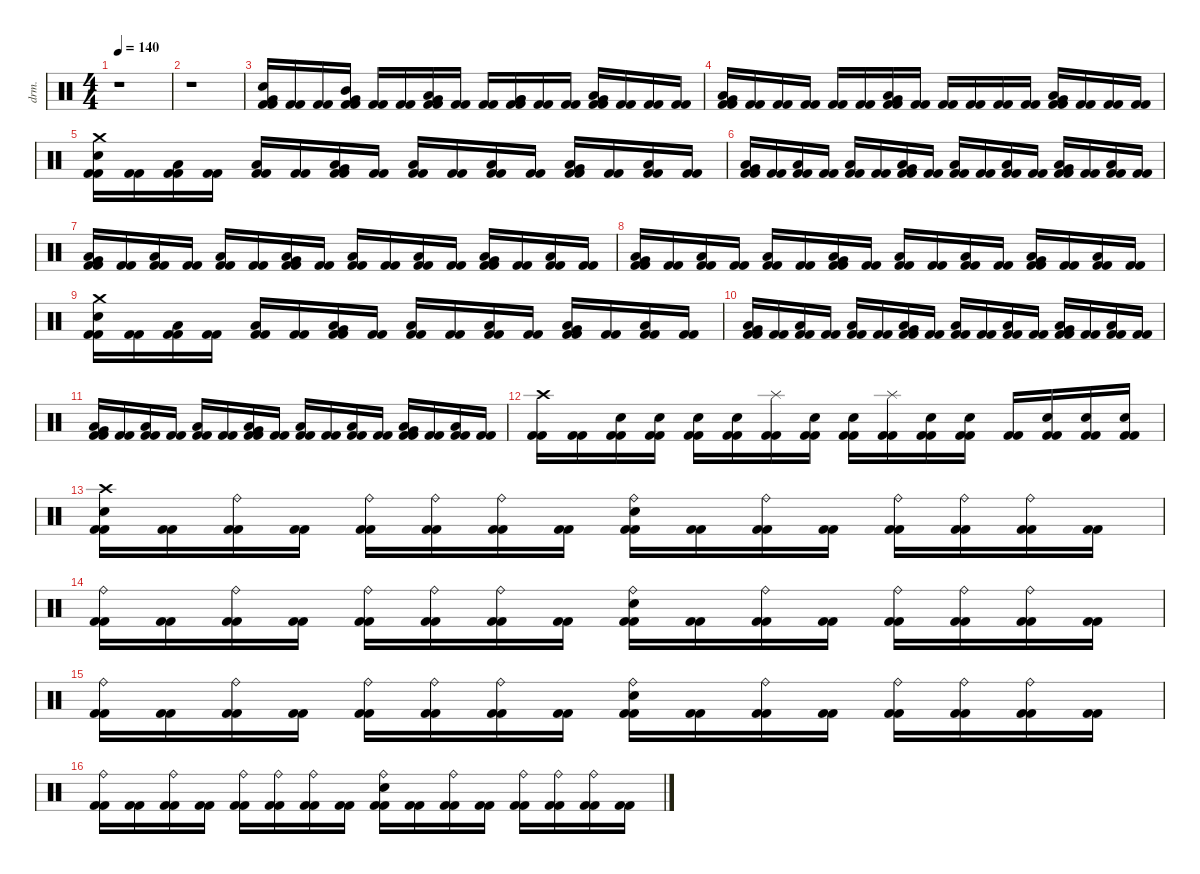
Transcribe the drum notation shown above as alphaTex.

\defaultSystemsLayout 4
\hideDynamics
\bracketExtendMode nobrackets
\otherSystemsTrackNameOrientation horizontal
\track ("Chris Adler" "drm.") {instrument percussion}
\staff {score}
\articulation defaults
\ts (4 4)
\tempo 140
\clef neutral
\ks c
r.1{dy f} |
r.1 |
("Very Low Tom (hit)" "Snare (hit) 2" "Kick (hit) 2" "Kick (hit) 2").16 ("Kick (hit) 2" "Kick (hit) 2").16 ("Kick (hit) 2" "Kick (hit) 2").16 ("Mid Tom (hit)" "Very Low Tom (hit)" "Kick (hit) 2" "Kick (hit) 2").16 ("Kick (hit) 2" "Kick (hit) 2").16 ("Kick (hit) 2" "Kick (hit) 2").16 ("Low Tom (hit)" "Very Low Tom (hit)" "Kick (hit) 2" "Kick (hit) 2").16 ("Kick (hit) 2" "Kick (hit) 2").16 ("Kick (hit) 2" "Kick (hit) 2").16 ("Very Low Tom (hit)" "Very Low Tom (hit)" "Kick (hit) 2" "Kick (hit) 2").16 ("Kick (hit) 2" "Kick (hit) 2").16 ("Kick (hit) 2" "Kick (hit) 2").16 ("Very Low Tom (hit)" "Low Floor Tom (hit)" "Kick (hit) 2" "Kick (hit) 2").16 ("Kick (hit) 2" "Kick (hit) 2").16 ("Kick (hit) 2" "Kick (hit) 2").16 ("Kick (hit) 2" "Kick (hit) 2").16 |
("Very Low Tom (hit)" "Low Floor Tom (hit)" "Kick (hit) 2" "Kick (hit) 2").16 ("Kick (hit) 2" "Kick (hit) 2").16 ("Kick (hit) 2" "Kick (hit) 2").16 ("Kick (hit) 2" "Kick (hit) 2").16 ("Kick (hit) 2" "Kick (hit) 2").16 ("Kick (hit) 2" "Kick (hit) 2").16 ("Very Low Tom (hit)" "Low Floor Tom (hit)" "Kick (hit) 2" "Kick (hit) 2").16 ("Kick (hit) 2" "Kick (hit) 2").16 ("Kick (hit) 2" "Kick (hit) 2").16 ("Kick (hit) 2" "Kick (hit) 2").16 ("Kick (hit) 2" "Kick (hit) 2").16 ("Kick (hit) 2" "Kick (hit) 2").16 ("Very Low Tom (hit)" "Low Floor Tom (hit)" "Kick (hit) 2" "Kick (hit) 2").16 ("Kick (hit) 2" "Kick (hit) 2").16 ("Kick (hit) 2" "Kick (hit) 2").16 ("Kick (hit) 2" "Kick (hit) 2").16 |
("Crash medium (hit)" "Snare (hit) 2" "Kick (hit) 2" "Kick (hit) 2").16 ("Kick (hit) 2" "Kick (hit) 2").16 ("Low Floor Tom (hit)" "Kick (hit) 2" "Kick (hit) 2").16 ("Kick (hit) 2" "Kick (hit) 2").16 ("Low Floor Tom (hit)" "Kick (hit) 2" "Kick (hit) 2").16 ("Kick (hit) 2" "Kick (hit) 2").16 ("Very Low Tom (hit)" "Low Floor Tom (hit)" "Kick (hit) 2" "Kick (hit) 2").16 ("Kick (hit) 2" "Kick (hit) 2").16 ("Low Floor Tom (hit)" "Kick (hit) 2" "Kick (hit) 2").16 ("Kick (hit) 2" "Kick (hit) 2").16 ("Low Floor Tom (hit)" "Kick (hit) 2" "Kick (hit) 2").16 ("Kick (hit) 2" "Kick (hit) 2").16 ("Very Low Tom (hit)" "Low Floor Tom (hit)" "Kick (hit) 2" "Kick (hit) 2").16 ("Kick (hit) 2" "Kick (hit) 2").16 ("Low Floor Tom (hit)" "Kick (hit) 2" "Kick (hit) 2").16 ("Kick (hit) 2" "Kick (hit) 2").16 |
("Very Low Tom (hit)" "Low Floor Tom (hit)" "Kick (hit) 2" "Kick (hit) 2").16 ("Kick (hit) 2" "Kick (hit) 2").16 ("Low Floor Tom (hit)" "Kick (hit) 2" "Kick (hit) 2").16 ("Kick (hit) 2" "Kick (hit) 2").16 ("Low Floor Tom (hit)" "Kick (hit) 2" "Kick (hit) 2").16 ("Kick (hit) 2" "Kick (hit) 2").16 ("Very Low Tom (hit)" "Low Floor Tom (hit)" "Kick (hit) 2" "Kick (hit) 2").16 ("Kick (hit) 2" "Kick (hit) 2").16 ("Low Floor Tom (hit)" "Kick (hit) 2" "Kick (hit) 2").16 ("Kick (hit) 2" "Kick (hit) 2").16 ("Low Floor Tom (hit)" "Kick (hit) 2" "Kick (hit) 2").16 ("Kick (hit) 2" "Kick (hit) 2").16 ("Very Low Tom (hit)" "Low Floor Tom (hit)" "Kick (hit) 2" "Kick (hit) 2").16 ("Kick (hit) 2" "Kick (hit) 2").16 ("Low Floor Tom (hit)" "Kick (hit) 2" "Kick (hit) 2").16 ("Kick (hit) 2" "Kick (hit) 2").16 |
("Very Low Tom (hit)" "Low Floor Tom (hit)" "Kick (hit) 2" "Kick (hit) 2").16 ("Kick (hit) 2" "Kick (hit) 2").16 ("Low Floor Tom (hit)" "Kick (hit) 2" "Kick (hit) 2").16 ("Kick (hit) 2" "Kick (hit) 2").16 ("Low Floor Tom (hit)" "Kick (hit) 2" "Kick (hit) 2").16 ("Kick (hit) 2" "Kick (hit) 2").16 ("Very Low Tom (hit)" "Low Floor Tom (hit)" "Kick (hit) 2" "Kick (hit) 2").16 ("Kick (hit) 2" "Kick (hit) 2").16 ("Low Floor Tom (hit)" "Kick (hit) 2" "Kick (hit) 2").16 ("Kick (hit) 2" "Kick (hit) 2").16 ("Low Floor Tom (hit)" "Kick (hit) 2" "Kick (hit) 2").16 ("Kick (hit) 2" "Kick (hit) 2").16 ("Very Low Tom (hit)" "Low Floor Tom (hit)" "Kick (hit) 2" "Kick (hit) 2").16 ("Kick (hit) 2" "Kick (hit) 2").16 ("Low Floor Tom (hit)" "Kick (hit) 2" "Kick (hit) 2").16 ("Kick (hit) 2" "Kick (hit) 2").16 |
("Very Low Tom (hit)" "Low Floor Tom (hit)" "Kick (hit) 2" "Kick (hit) 2").16 ("Kick (hit) 2" "Kick (hit) 2").16 ("Low Floor Tom (hit)" "Kick (hit) 2" "Kick (hit) 2").16 ("Kick (hit) 2" "Kick (hit) 2").16 ("Low Floor Tom (hit)" "Kick (hit) 2" "Kick (hit) 2").16 ("Kick (hit) 2" "Kick (hit) 2").16 ("Very Low Tom (hit)" "Low Floor Tom (hit)" "Kick (hit) 2" "Kick (hit) 2").16 ("Kick (hit) 2" "Kick (hit) 2").16 ("Low Floor Tom (hit)" "Kick (hit) 2" "Kick (hit) 2").16 ("Kick (hit) 2" "Kick (hit) 2").16 ("Low Floor Tom (hit)" "Kick (hit) 2" "Kick (hit) 2").16 ("Kick (hit) 2" "Kick (hit) 2").16 ("Very Low Tom (hit)" "Low Floor Tom (hit)" "Kick (hit) 2" "Kick (hit) 2").16 ("Kick (hit) 2" "Kick (hit) 2").16 ("Low Floor Tom (hit)" "Kick (hit) 2" "Kick (hit) 2").16 ("Kick (hit) 2" "Kick (hit) 2").16 |
("Crash medium (hit)" "Snare (hit) 2" "Kick (hit) 2" "Kick (hit) 2").16 ("Kick (hit) 2" "Kick (hit) 2").16 ("Low Floor Tom (hit)" "Kick (hit) 2" "Kick (hit) 2").16 ("Kick (hit) 2" "Kick (hit) 2").16 ("Low Floor Tom (hit)" "Kick (hit) 2" "Kick (hit) 2").16 ("Kick (hit) 2" "Kick (hit) 2").16 ("Very Low Tom (hit)" "Low Floor Tom (hit)" "Kick (hit) 2" "Kick (hit) 2").16 ("Kick (hit) 2" "Kick (hit) 2").16 ("Low Floor Tom (hit)" "Kick (hit) 2" "Kick (hit) 2").16 ("Kick (hit) 2" "Kick (hit) 2").16 ("Low Floor Tom (hit)" "Kick (hit) 2" "Kick (hit) 2").16 ("Kick (hit) 2" "Kick (hit) 2").16 ("Very Low Tom (hit)" "Low Floor Tom (hit)" "Kick (hit) 2" "Kick (hit) 2").16 ("Kick (hit) 2" "Kick (hit) 2").16 ("Low Floor Tom (hit)" "Kick (hit) 2" "Kick (hit) 2").16 ("Kick (hit) 2" "Kick (hit) 2").16 |
("Very Low Tom (hit)" "Low Floor Tom (hit)" "Kick (hit) 2" "Kick (hit) 2").16 ("Kick (hit) 2" "Kick (hit) 2").16 ("Low Floor Tom (hit)" "Kick (hit) 2" "Kick (hit) 2").16 ("Kick (hit) 2" "Kick (hit) 2").16 ("Low Floor Tom (hit)" "Kick (hit) 2" "Kick (hit) 2").16 ("Kick (hit) 2" "Kick (hit) 2").16 ("Very Low Tom (hit)" "Low Floor Tom (hit)" "Kick (hit) 2" "Kick (hit) 2").16 ("Kick (hit) 2" "Kick (hit) 2").16 ("Low Floor Tom (hit)" "Kick (hit) 2" "Kick (hit) 2").16 ("Kick (hit) 2" "Kick (hit) 2").16 ("Low Floor Tom (hit)" "Kick (hit) 2" "Kick (hit) 2").16 ("Kick (hit) 2" "Kick (hit) 2").16 ("Very Low Tom (hit)" "Low Floor Tom (hit)" "Kick (hit) 2" "Kick (hit) 2").16 ("Kick (hit) 2" "Kick (hit) 2").16 ("Low Floor Tom (hit)" "Kick (hit) 2" "Kick (hit) 2").16 ("Kick (hit) 2" "Kick (hit) 2").16 |
("Very Low Tom (hit)" "Low Floor Tom (hit)" "Kick (hit) 2" "Kick (hit) 2").16 ("Kick (hit) 2" "Kick (hit) 2").16 ("Low Floor Tom (hit)" "Kick (hit) 2" "Kick (hit) 2").16 ("Kick (hit) 2" "Kick (hit) 2").16 ("Low Floor Tom (hit)" "Kick (hit) 2" "Kick (hit) 2").16 ("Kick (hit) 2" "Kick (hit) 2").16 ("Very Low Tom (hit)" "Low Floor Tom (hit)" "Kick (hit) 2" "Kick (hit) 2").16 ("Kick (hit) 2" "Kick (hit) 2").16 ("Low Floor Tom (hit)" "Kick (hit) 2" "Kick (hit) 2").16 ("Kick (hit) 2" "Kick (hit) 2").16 ("Low Floor Tom (hit)" "Kick (hit) 2" "Kick (hit) 2").16 ("Kick (hit) 2" "Kick (hit) 2").16 ("Very Low Tom (hit)" "Low Floor Tom (hit)" "Kick (hit) 2" "Kick (hit) 2").16 ("Kick (hit) 2" "Kick (hit) 2").16 ("Low Floor Tom (hit)" "Kick (hit) 2" "Kick (hit) 2").16 ("Kick (hit) 2" "Kick (hit) 2").16 |
("Crash high (hit)" "Kick (hit) 2" "Kick (hit) 2").16 ("Kick (hit) 2" "Kick (hit) 2").16 ("Snare (hit) 2" "Kick (hit) 2" "Kick (hit) 2").16 ("Snare (hit) 2" "Kick (hit) 2" "Kick (hit) 2").16 ("Snare (hit) 2" "Kick (hit) 2" "Kick (hit) 2").16 ("Snare (hit) 2" "Kick (hit) 2" "Kick (hit) 2").16 ("Splash (hit)" "Kick (hit) 2" "Kick (hit) 2").16 ("Snare (hit) 2" "Kick (hit) 2" "Kick (hit) 2").16 ("Snare (hit) 2" "Kick (hit) 2" "Kick (hit) 2").16 ("Splash (hit)" "Kick (hit) 2" "Kick (hit) 2").16 ("Snare (hit) 2" "Kick (hit) 2" "Kick (hit) 2").16 ("Snare (hit) 2" "Kick (hit) 2" "Kick (hit) 2").16 ("Kick (hit) 2" "Kick (hit) 2").16 ("Snare (hit) 2" "Kick (hit) 2" "Kick (hit) 2").16 ("Snare (hit) 2" "Kick (hit) 2" "Kick (hit) 2").16 ("Snare (hit) 2" "Kick (hit) 2" "Kick (hit) 2").16 |
("Crash high (hit)" "Snare (hit) 2" "Kick (hit) 2" "Kick (hit) 2").16 ("Kick (hit) 2" "Kick (hit) 2").16 ("Ride (bell)" "Kick (hit) 2" "Kick (hit) 2").16 ("Kick (hit) 2" "Kick (hit) 2").16 ("Ride (bell)" "Kick (hit) 2" "Kick (hit) 2").16 ("Ride (bell)" "Kick (hit) 2" "Kick (hit) 2").16 ("Ride (bell)" "Kick (hit) 2" "Kick (hit) 2").16 ("Kick (hit) 2" "Kick (hit) 2").16 ("Ride (bell)" "Snare (hit) 2" "Kick (hit) 2" "Kick (hit) 2").16 ("Kick (hit) 2" "Kick (hit) 2").16 ("Ride (bell)" "Kick (hit) 2" "Kick (hit) 2").16 ("Kick (hit) 2" "Kick (hit) 2").16 ("Ride (bell)" "Kick (hit) 2" "Kick (hit) 2").16 ("Ride (bell)" "Kick (hit) 2" "Kick (hit) 2").16 ("Ride (bell)" "Kick (hit) 2" "Kick (hit) 2").16 ("Kick (hit) 2" "Kick (hit) 2").16 |
("Ride (bell)" "Kick (hit) 2" "Kick (hit) 2").16 ("Kick (hit) 2" "Kick (hit) 2").16 ("Ride (bell)" "Kick (hit) 2" "Kick (hit) 2").16 ("Kick (hit) 2" "Kick (hit) 2").16 ("Ride (bell)" "Kick (hit) 2" "Kick (hit) 2").16 ("Ride (bell)" "Kick (hit) 2" "Kick (hit) 2").16 ("Ride (bell)" "Kick (hit) 2" "Kick (hit) 2").16 ("Kick (hit) 2" "Kick (hit) 2").16 ("Ride (bell)" "Snare (hit) 2" "Kick (hit) 2" "Kick (hit) 2").16 ("Kick (hit) 2" "Kick (hit) 2").16 ("Ride (bell)" "Kick (hit) 2" "Kick (hit) 2").16 ("Kick (hit) 2" "Kick (hit) 2").16 ("Ride (bell)" "Kick (hit) 2" "Kick (hit) 2").16 ("Ride (bell)" "Kick (hit) 2" "Kick (hit) 2").16 ("Ride (bell)" "Kick (hit) 2" "Kick (hit) 2").16 ("Kick (hit) 2" "Kick (hit) 2").16 |
("Ride (bell)" "Kick (hit) 2" "Kick (hit) 2").16 ("Kick (hit) 2" "Kick (hit) 2").16 ("Ride (bell)" "Kick (hit) 2" "Kick (hit) 2").16 ("Kick (hit) 2" "Kick (hit) 2").16 ("Ride (bell)" "Kick (hit) 2" "Kick (hit) 2").16 ("Ride (bell)" "Kick (hit) 2" "Kick (hit) 2").16 ("Ride (bell)" "Kick (hit) 2" "Kick (hit) 2").16 ("Kick (hit) 2" "Kick (hit) 2").16 ("Ride (bell)" "Snare (hit) 2" "Kick (hit) 2" "Kick (hit) 2").16 ("Kick (hit) 2" "Kick (hit) 2").16 ("Ride (bell)" "Kick (hit) 2" "Kick (hit) 2").16 ("Kick (hit) 2" "Kick (hit) 2").16 ("Ride (bell)" "Kick (hit) 2" "Kick (hit) 2").16 ("Ride (bell)" "Kick (hit) 2" "Kick (hit) 2").16 ("Ride (bell)" "Kick (hit) 2" "Kick (hit) 2").16 ("Kick (hit) 2" "Kick (hit) 2").16 |
("Ride (bell)" "Kick (hit) 2" "Kick (hit) 2").16 ("Kick (hit) 2" "Kick (hit) 2").16 ("Ride (bell)" "Kick (hit) 2" "Kick (hit) 2").16 ("Kick (hit) 2" "Kick (hit) 2").16 ("Ride (bell)" "Kick (hit) 2" "Kick (hit) 2").16 ("Ride (bell)" "Kick (hit) 2" "Kick (hit) 2").16 ("Ride (bell)" "Kick (hit) 2" "Kick (hit) 2").16 ("Kick (hit) 2" "Kick (hit) 2").16 ("Ride (bell)" "Snare (hit) 2" "Kick (hit) 2" "Kick (hit) 2").16 ("Kick (hit) 2" "Kick (hit) 2").16 ("Ride (bell)" "Kick (hit) 2" "Kick (hit) 2").16 ("Kick (hit) 2" "Kick (hit) 2").16 ("Ride (bell)" "Kick (hit) 2" "Kick (hit) 2").16 ("Ride (bell)" "Kick (hit) 2" "Kick (hit) 2").16 ("Ride (bell)" "Kick (hit) 2" "Kick (hit) 2").16 ("Kick (hit) 2" "Kick (hit) 2").16
